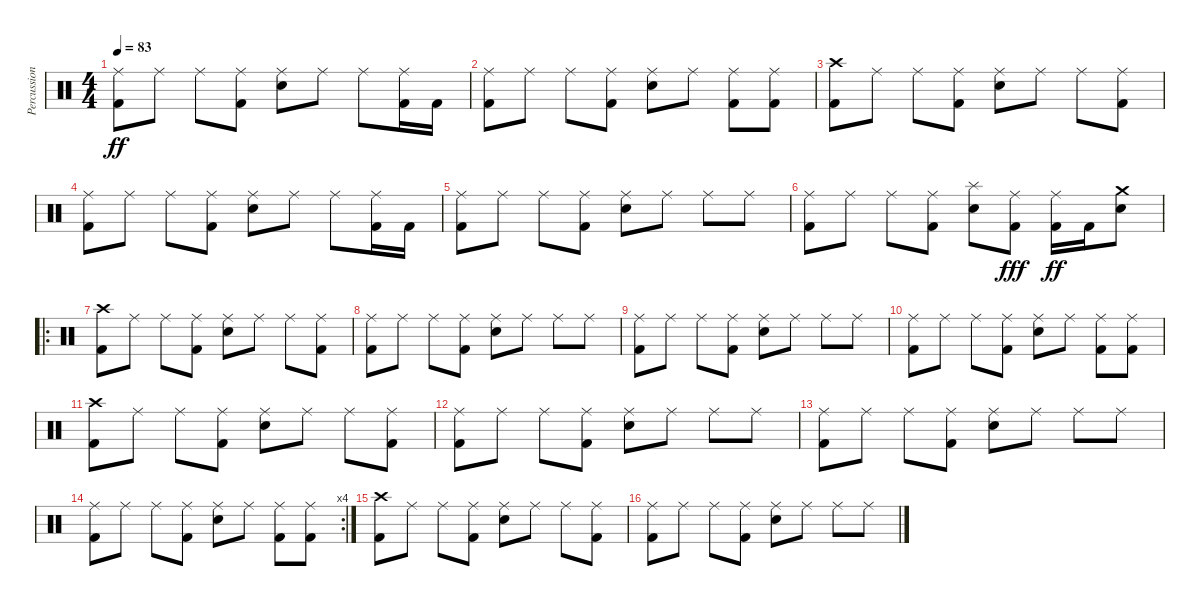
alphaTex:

\track ("Percussions" "Percussion") {instrument percussion}
\staff {score}
\articulation defaults
\ts (4 4)
\tempo 83
\clef neutral
\ks c
("Ride (middle)" "Kick (hit) 2").8{dy ff} "Ride (middle)".8 "Ride (middle)".8 ("Ride (middle)" "Kick (hit) 2").8 ("Ride (middle)" "Electric Snare (hit)").8 "Ride (middle)".8 "Ride (middle)".8 ("Ride (middle)" "Kick (hit) 2").16 "Kick (hit) 2".16 |
("Ride (middle)" "Kick (hit) 2").8 "Ride (middle)".8 "Ride (middle)".8 ("Ride (middle)" "Kick (hit) 2").8 ("Ride (middle)" "Electric Snare (hit)").8 "Ride (middle)".8 ("Ride (middle)" "Kick (hit) 2").8 ("Ride (middle)" "Kick (hit) 2").8 |
("Crash high (hit)" "Kick (hit) 2").8 "Ride (middle)".8 "Ride (middle)".8 ("Ride (middle)" "Kick (hit) 2").8 ("Ride (middle)" "Electric Snare (hit)").8 "Ride (middle)".8 "Ride (middle)".8 ("Ride (middle)" "Kick (hit) 2").8 |
("Ride (middle)" "Kick (hit) 2").8 "Ride (middle)".8 "Ride (middle)".8 ("Ride (middle)" "Kick (hit) 2").8 ("Ride (middle)" "Electric Snare (hit)").8 "Ride (middle)".8 "Ride (middle)".8 ("Ride (middle)" "Kick (hit) 2").16 "Kick (hit) 2".16 |
("Ride (middle)" "Kick (hit) 2").8 "Ride (middle)".8 "Ride (middle)".8 ("Ride (middle)" "Kick (hit) 2").8 ("Ride (middle)" "Electric Snare (hit)").8 "Ride (middle)".8 "Ride (middle)".8 "Ride (middle)".8 |
("Ride (middle)" "Kick (hit) 2").8 "Ride (middle)".8 "Ride (middle)".8 ("Ride (middle)" "Kick (hit) 2").8 ("Splash (hit)" "Electric Snare (hit)").8 ("Ride (middle)" "Kick (hit) 2").8{dy fff} ("Ride (middle)" "Kick (hit) 2").16{dy ff} "Kick (hit) 2".16 ("Crash medium (hit)" "Electric Snare (hit)").8 |
\ro
("Crash high (hit)" "Kick (hit) 2").8 "Ride (middle)".8 "Ride (middle)".8 ("Ride (middle)" "Kick (hit) 2").8 ("Ride (middle)" "Electric Snare (hit)").8 "Ride (middle)".8 "Ride (middle)".8 ("Ride (middle)" "Kick (hit) 2").8 |
("Ride (middle)" "Kick (hit) 2").8 "Ride (middle)".8 "Ride (middle)".8 ("Ride (middle)" "Kick (hit) 2").8 ("Ride (middle)" "Electric Snare (hit)").8 "Ride (middle)".8 "Ride (middle)".8 "Ride (middle)".8 |
("Ride (middle)" "Kick (hit) 2").8 "Ride (middle)".8 "Ride (middle)".8 ("Ride (middle)" "Kick (hit) 2").8 ("Ride (middle)" "Electric Snare (hit)").8 "Ride (middle)".8 "Ride (middle)".8 "Ride (middle)".8 |
("Ride (middle)" "Kick (hit) 2").8 "Ride (middle)".8 "Ride (middle)".8 ("Ride (middle)" "Kick (hit) 2").8 ("Ride (middle)" "Electric Snare (hit)").8 "Ride (middle)".8 ("Ride (middle)" "Kick (hit) 2").8 ("Ride (middle)" "Kick (hit) 2").8 |
("Crash high (hit)" "Kick (hit) 2").8 "Ride (middle)".8 "Ride (middle)".8 ("Ride (middle)" "Kick (hit) 2").8 ("Ride (middle)" "Electric Snare (hit)").8 "Ride (middle)".8 "Ride (middle)".8 ("Ride (middle)" "Kick (hit) 2").8 |
("Ride (middle)" "Kick (hit) 2").8 "Ride (middle)".8 "Ride (middle)".8 ("Ride (middle)" "Kick (hit) 2").8 ("Ride (middle)" "Electric Snare (hit)").8 "Ride (middle)".8 "Ride (middle)".8 "Ride (middle)".8 |
("Ride (middle)" "Kick (hit) 2").8 "Ride (middle)".8 "Ride (middle)".8 ("Ride (middle)" "Kick (hit) 2").8 ("Ride (middle)" "Electric Snare (hit)").8 "Ride (middle)".8 "Ride (middle)".8 "Ride (middle)".8 |
\rc 4
("Ride (middle)" "Kick (hit) 2").8 "Ride (middle)".8 "Ride (middle)".8 ("Ride (middle)" "Kick (hit) 2").8 ("Ride (middle)" "Electric Snare (hit)").8 "Ride (middle)".8 ("Ride (middle)" "Kick (hit) 2").8 ("Ride (middle)" "Kick (hit) 2").8 |
("Crash high (hit)" "Kick (hit) 2").8 "Ride (middle)".8 "Ride (middle)".8 ("Ride (middle)" "Kick (hit) 2").8 ("Ride (middle)" "Electric Snare (hit)").8 "Ride (middle)".8 "Ride (middle)".8 ("Ride (middle)" "Kick (hit) 2").8 |
("Ride (middle)" "Kick (hit) 2").8 "Ride (middle)".8 "Ride (middle)".8 ("Ride (middle)" "Kick (hit) 2").8 ("Ride (middle)" "Electric Snare (hit)").8 "Ride (middle)".8 "Ride (middle)".8 "Ride (middle)".8
